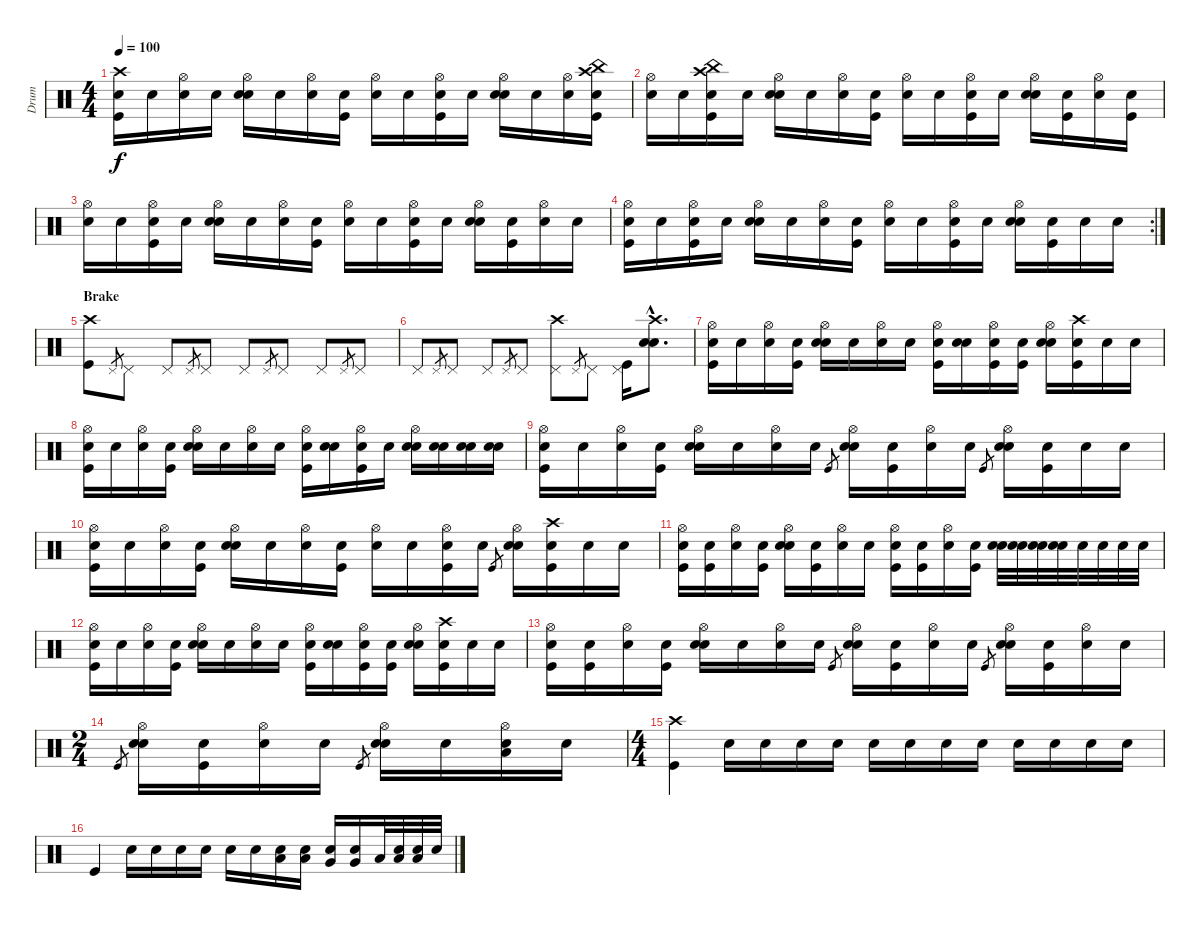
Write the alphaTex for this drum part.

\track ("Drum" "Drum") {instrument percussion}
\staff {score}
\articulation defaults
\ts (4 4)
\tempo 100
\clef neutral
\ks c
("Kick (hit)" "Crash high (hit)" "Snare (hit)"{x}).16{dy f} "Snare (hit)"{x}.16 ("Hi-Hat (open)" "Snare (hit)"{x}).16 "Snare (hit)"{x}.16 ("Snare (hit) 2" "Hi-Hat (open)" "Snare (hit)"{x}).16 "Snare (hit)"{x}.16 ("Hi-Hat (open)" "Snare (hit)"{x}).16 ("Kick (hit)" "Snare (hit)"{x}).16 ("Hi-Hat (open)" "Snare (hit)"{x}).16 "Snare (hit)"{x}.16 ("Kick (hit)" "Hi-Hat (open)" "Snare (hit)"{x}).16 "Snare (hit)"{x}.16 ("Snare (hit) 2" "Hi-Hat (open)" "Snare (hit)"{x}).16 "Snare (hit)"{x}.16 ("Hi-Hat (open)" "Snare (hit)"{x}).16 ("Crash high (hit)" "Kick (hit)" "China (hit)" "Snare (hit)"{x}).16 |
("Hi-Hat (open)" "Snare (hit)"{x}).16 "Snare (hit)"{x}.16 ("Crash high (hit)" "Kick (hit)" "China (hit)" "Snare (hit)"{x}).16 "Snare (hit)"{x}.16 ("Snare (hit) 2" "Hi-Hat (open)" "Snare (hit)"{x}).16 "Snare (hit)"{x}.16 ("Hi-Hat (open)" "Snare (hit)"{x}).16 ("Kick (hit)" "Snare (hit)"{x}).16 ("Hi-Hat (open)" "Snare (hit)"{x}).16 "Snare (hit)"{x}.16 ("Kick (hit)" "Hi-Hat (open)" "Snare (hit)"{x}).16 "Snare (hit)"{x}.16 ("Snare (hit) 2" "Hi-Hat (open)" "Snare (hit)"{x}).16 ("Kick (hit)" "Snare (hit)"{x}).16 ("Hi-Hat (open)" "Snare (hit)"{x}).16 ("Kick (hit)" "Snare (hit)"{x}).16 |
("Hi-Hat (open)" "Snare (hit)"{x}).16 "Snare (hit)"{x}.16 ("Kick (hit)" "Hi-Hat (open)" "Snare (hit)"{x}).16 "Snare (hit)"{x}.16 ("Snare (hit) 2" "Hi-Hat (open)" "Snare (hit)"{x}).16 "Snare (hit)"{x}.16 ("Hi-Hat (open)" "Snare (hit)"{x}).16 ("Kick (hit)" "Snare (hit)"{x}).16 ("Hi-Hat (open)" "Snare (hit)"{x}).16 "Snare (hit)"{x}.16 ("Kick (hit)" "Hi-Hat (open)" "Snare (hit)"{x}).16 "Snare (hit)"{x}.16 ("Snare (hit) 2" "Hi-Hat (open)" "Snare (hit)"{x}).16 ("Kick (hit)" "Snare (hit)"{x}).16 ("Hi-Hat (open)" "Snare (hit)"{x}).16 "Snare (hit)"{x}.16 |
\rc 2
("Kick (hit)" "Hi-Hat (open)" "Snare (hit)"{x}).16 "Snare (hit)"{x}.16 ("Kick (hit)" "Hi-Hat (open)" "Snare (hit)"{x}).16 "Snare (hit)"{x}.16 ("Snare (hit) 2" "Hi-Hat (open)" "Snare (hit)"{x}).16 "Snare (hit)"{x}.16 ("Hi-Hat (open)" "Snare (hit)"{x}).16 ("Kick (hit)" "Snare (hit)"{x}).16 ("Hi-Hat (open)" "Snare (hit)"{x}).16 "Snare (hit)"{x}.16 ("Kick (hit)" "Hi-Hat (open)" "Snare (hit)"{x}).16 "Snare (hit)"{x}.16 ("Snare (hit) 2" "Hi-Hat (open)" "Snare (hit)"{x}).16 ("Kick (hit)" "Snare (hit)"{x}).16 "Snare (hit)"{x}.16 "Snare (hit)"{x}.16 |
\section ("" "Brake")
("Crash high (hit)" "Kick (hit)").8 "Pedal Hi-Hat (hit)".8{gr} "Pedal Hi-Hat (hit)".8 "Pedal Hi-Hat (hit)".8 "Pedal Hi-Hat (hit)".8{gr} "Pedal Hi-Hat (hit)".8 "Pedal Hi-Hat (hit)".8 "Pedal Hi-Hat (hit)".8{gr} "Pedal Hi-Hat (hit)".8 "Pedal Hi-Hat (hit)".8 "Pedal Hi-Hat (hit)".8{gr} "Pedal Hi-Hat (hit)".8 |
"Pedal Hi-Hat (hit)".8 "Pedal Hi-Hat (hit)".8{gr} "Pedal Hi-Hat (hit)".8 "Pedal Hi-Hat (hit)".8 "Pedal Hi-Hat (hit)".8{gr} "Pedal Hi-Hat (hit)".8 ("Pedal Hi-Hat (hit)" "Crash high (hit)").8 "Pedal Hi-Hat (hit)".8{gr} "Pedal Hi-Hat (hit)".8 ("Pedal Hi-Hat (hit)" "Kick (hit)").16 ("Crash high (hit)"{hac} "Electric Snare (hit)"{hac} "Snare (hit) 2"{hac}).8{d} |
("Kick (hit)" "Hi-Hat (open)" "Snare (hit)"{x}).16 "Snare (hit)"{x}.16 ("Hi-Hat (open)" "Snare (hit)"{x}).16 ("Kick (hit)" "Snare (hit)"{x}).16 ("Snare (hit) 2" "Hi-Hat (open)" "Snare (hit)"{x}).16 "Snare (hit)"{x}.16 ("Hi-Hat (open)" "Snare (hit)"{x}).16 "Snare (hit)"{x}.16 ("Kick (hit)" "Hi-Hat (open)" "Snare (hit)"{x}).16 ("Snare (hit) 2" "Snare (hit)"{x}).16 ("Kick (hit)" "Hi-Hat (open)" "Snare (hit)"{x}).16 ("Kick (hit)" "Snare (hit)"{x}).16 ("Snare (hit) 2" "Hi-Hat (open)" "Snare (hit)"{x}).16 ("Crash high (hit)" "Kick (hit)" "Snare (hit)"{x}).16 "Snare (hit)"{x}.16 "Snare (hit)"{x}.16 |
("Kick (hit)" "Hi-Hat (open)" "Snare (hit)"{x}).16 "Snare (hit)"{x}.16 ("Hi-Hat (open)" "Snare (hit)"{x}).16 ("Kick (hit)" "Snare (hit)"{x}).16 ("Snare (hit) 2" "Hi-Hat (open)" "Snare (hit)"{x}).16 "Snare (hit)"{x}.16 ("Hi-Hat (open)" "Snare (hit)"{x}).16 "Snare (hit)"{x}.16 ("Kick (hit)" "Hi-Hat (open)" "Snare (hit)"{x}).16 ("Snare (hit) 2" "Snare (hit)"{x}).16 ("Kick (hit)" "Hi-Hat (open)" "Snare (hit)"{x}).16 "Snare (hit)"{x}.16 ("Snare (hit) 2" "Hi-Hat (open)" "Snare (hit)"{x}).16 ("Snare (hit) 2" "Snare (hit)"{x}).16 ("Snare (hit) 2" "Snare (hit)"{x}).16 ("Snare (hit) 2" "Snare (hit)"{x}).16 |
("Kick (hit)" "Hi-Hat (open)" "Snare (hit)"{x}).16 "Snare (hit)"{x}.16 ("Hi-Hat (open)" "Snare (hit)"{x}).16 ("Kick (hit)" "Snare (hit)"{x}).16 ("Snare (hit) 2" "Hi-Hat (open)" "Snare (hit)"{x}).16 "Snare (hit)"{x}.16 ("Hi-Hat (open)" "Snare (hit)"{x}).16 "Snare (hit)"{x}.16 "Kick (hit)".8{gr} ("Snare (hit) 2" "Hi-Hat (open)" "Snare (hit)"{x}).16 ("Kick (hit)" "Snare (hit)"{x}).16 ("Hi-Hat (open)" "Snare (hit)"{x}).16 "Snare (hit)"{x}.16 "Kick (hit)".8{gr} ("Snare (hit) 2" "Hi-Hat (open)" "Snare (hit)"{x}).16 ("Kick (hit)" "Snare (hit)"{x}).16 "Snare (hit)"{x}.16 "Snare (hit)"{x}.16 |
("Kick (hit)" "Hi-Hat (open)" "Snare (hit)"{x}).16 "Snare (hit)"{x}.16 ("Hi-Hat (open)" "Snare (hit)"{x}).16 ("Kick (hit)" "Snare (hit)"{x}).16 ("Snare (hit) 2" "Hi-Hat (open)" "Snare (hit)"{x}).16 "Snare (hit)"{x}.16 ("Hi-Hat (open)" "Snare (hit)"{x}).16 ("Kick (hit)" "Snare (hit)"{x}).16 ("Hi-Hat (open)" "Snare (hit)"{x}).16 "Snare (hit)"{x}.16 ("Kick (hit)" "Hi-Hat (open)" "Snare (hit)"{x}).16 "Snare (hit)"{x}.16 "Kick (hit)".8{gr} ("Snare (hit) 2" "Hi-Hat (open)" "Snare (hit)"{x}).16 ("Crash high (hit)" "Kick (hit)" "Snare (hit)"{x}).16 "Snare (hit)"{x}.16 "Snare (hit)"{x}.16 |
("Kick (hit)" "Hi-Hat (open)" "Snare (hit)"{x}).16 ("Kick (hit)" "Snare (hit)"{x}).16 ("Hi-Hat (open)" "Snare (hit)"{x}).16 ("Kick (hit)" "Snare (hit)"{x}).16 ("Snare (hit) 2" "Hi-Hat (open)" "Snare (hit)"{x}).16 ("Kick (hit)" "Snare (hit)"{x}).16 ("Hi-Hat (open)" "Snare (hit)"{x}).16 "Snare (hit)"{x}.16 ("Kick (hit)" "Hi-Hat (open)" "Snare (hit)"{x}).16 ("Kick (hit)" "Snare (hit)"{x}).16 ("Hi-Hat (open)" "Snare (hit)"{x}).16 ("Kick (hit)" "Snare (hit)"{x}).16 ("Electric Snare (hit)" "Snare (hit)"{x}).32 ("Electric Snare (hit)" "Snare (hit)"{x}).32 ("Electric Snare (hit)" "Snare (hit)"{x}).32 ("Electric Snare (hit)" "Snare (hit)"{x}).32 "Electric Snare (hit)".32 "Electric Snare (hit)".32 "Electric Snare (hit)".32 "Electric Snare (hit)".32 |
("Kick (hit)" "Hi-Hat (open)" "Snare (hit)"{x}).16 "Snare (hit)"{x}.16 ("Hi-Hat (open)" "Snare (hit)"{x}).16 ("Kick (hit)" "Snare (hit)"{x}).16 ("Snare (hit) 2" "Hi-Hat (open)" "Snare (hit)"{x}).16 "Snare (hit)"{x}.16 ("Hi-Hat (open)" "Snare (hit)"{x}).16 "Snare (hit)"{x}.16 ("Kick (hit)" "Hi-Hat (open)" "Snare (hit)"{x}).16 ("Snare (hit) 2" "Snare (hit)"{x}).16 ("Kick (hit)" "Hi-Hat (open)" "Snare (hit)"{x}).16 ("Kick (hit)" "Snare (hit)"{x}).16 ("Snare (hit) 2" "Hi-Hat (open)" "Snare (hit)"{x}).16 ("Crash high (hit)" "Kick (hit)" "Snare (hit)"{x}).16 "Snare (hit)"{x}.16 "Snare (hit)"{x}.16 |
("Kick (hit)" "Hi-Hat (open)" "Snare (hit)"{x}).16 ("Kick (hit)" "Snare (hit)"{x}).16 ("Hi-Hat (open)" "Snare (hit)"{x}).16 ("Kick (hit)" "Snare (hit)"{x}).16 ("Snare (hit) 2" "Hi-Hat (open)" "Snare (hit)"{x}).16 "Snare (hit)"{x}.16 ("Hi-Hat (open)" "Snare (hit)"{x}).16 "Snare (hit)"{x}.16 "Kick (hit)".8{gr} ("Snare (hit) 2" "Hi-Hat (open)" "Snare (hit)"{x}).16 ("Kick (hit)" "Snare (hit)"{x}).16 ("Hi-Hat (open)" "Snare (hit)"{x}).16 "Snare (hit)"{x}.16 "Kick (hit)".8{gr} ("Snare (hit) 2" "Hi-Hat (open)" "Snare (hit)"{x}).16 ("Kick (hit)" "Snare (hit)"{x}).16 ("Hi-Hat (open)" "Snare (hit)"{x}).16 "Snare (hit)"{x}.16 |
\ts (2 4)
"Kick (hit)".8{gr} ("Snare (hit) 2" "Hi-Hat (open)" "Snare (hit)"{x}).16 ("Kick (hit)" "Snare (hit)"{x}).16 ("Hi-Hat (open)" "Snare (hit)"{x}).16 "Snare (hit)"{x}.16 "Kick (hit)".8{gr} ("Snare (hit) 2" "Hi-Hat (open)" "Snare (hit)"{x}).16 "Snare (hit)"{x}.16 ("Low Floor Tom (hit)" "Hi-Hat (open)" "Snare (hit)"{x}).16 "Snare (hit)"{x}.16 |
\ts (4 4)
("Crash high (hit)" "Kick (hit)").4 "Snare (hit)"{x}.16 "Snare (hit)"{x}.16 "Snare (hit)"{x}.16 "Snare (hit)"{x}.16 "Snare (hit)"{x}.16 "Snare (hit)"{x}.16 "Snare (hit)"{x}.16 "Snare (hit)"{x}.16 "Snare (hit)"{x}.16 "Snare (hit)"{x}.16 "Snare (hit)"{x}.16 "Snare (hit)"{x}.16 |
"Kick (hit)".4 "Snare (hit)"{x}.16 "Snare (hit)"{x}.16 "Snare (hit)"{x}.16 "Snare (hit)"{x}.16 "Snare (hit)"{x}.16 "Snare (hit)"{x}.16 ("Low Tom (hit)" "Snare (hit)"{x}).16 ("Low Tom (hit)" "Snare (hit)"{x}).16 ("Very Low Tom (hit)" "Snare (hit)"{x}).16 ("Very Low Tom (hit)" "Snare (hit)"{x}).16 "Low Floor Tom (hit)".32 ("Low Floor Tom (hit)" "Snare (hit)"{x}).32 ("Low Floor Tom (hit)" "Snare (hit)"{x}).32 "Snare (hit)"{x}.32
